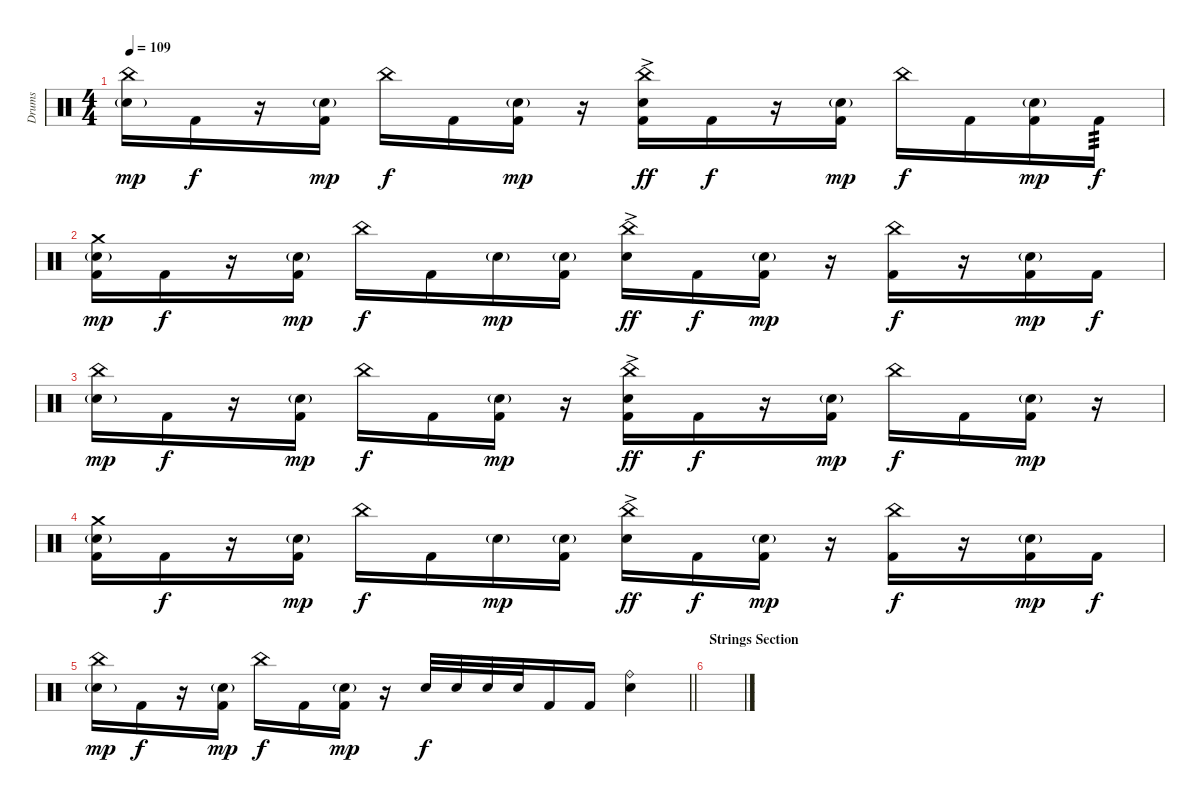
\track ("Drums" "Drums") {instrument percussion}
\staff {score}
\articulation defaults
\ts (4 4)
\tempo 109
\clef neutral
\ks c
("China (hit)" "Snare (hit) 2"{g}).16{dy mp} "Kick (hit) 2".16{dy f} r.16 ("Snare (hit) 2"{g} "Kick (hit) 2").16{dy mp} "China (hit)".16{dy f} "Kick (hit) 2".16 ("Snare (hit) 2"{g} "Kick (hit) 2").16{dy mp} r.16 ("China (hit)" "Snare (hit) 2"{ac} "Kick (hit) 2").16{dy ff} "Kick (hit) 2".16{dy f} r.16 ("Snare (hit) 2"{g} "Kick (hit) 2").16{dy mp} "China (hit)".16{dy f} "Kick (hit) 2".16 ("Snare (hit) 2"{g} "Kick (hit) 2").16{dy mp} "Kick (hit) 2".16{tp 3 dy f} |
("Crash medium (hit)" "Snare (hit) 2"{g} "Kick (hit) 2").16{dy mp} "Kick (hit) 2".16{dy f} r.16 ("Snare (hit) 2"{g} "Kick (hit) 2").16{dy mp} "China (hit)".16{dy f} "Kick (hit) 2".16 "Snare (hit) 2"{g}.16{dy mp} ("Snare (hit) 2"{g} "Kick (hit) 2").16 ("China (hit)" "Snare (hit) 2"{ac}).16{dy ff} "Kick (hit) 2".16{dy f} ("Snare (hit) 2"{g} "Kick (hit) 2").16{dy mp} r.16 ("China (hit)" "Kick (hit) 2").16{dy f} r.16 ("Snare (hit) 2"{g} "Kick (hit) 2").16{dy mp} "Kick (hit) 2".16{dy f} |
("China (hit)" "Snare (hit) 2"{g}).16{dy mp} "Kick (hit) 2".16{dy f} r.16 ("Snare (hit) 2"{g} "Kick (hit) 2").16{dy mp} "China (hit)".16{dy f} "Kick (hit) 2".16 ("Snare (hit) 2"{g} "Kick (hit) 2").16{dy mp} r.16 ("China (hit)" "Snare (hit) 2"{ac} "Kick (hit) 2").16{dy ff} "Kick (hit) 2".16{dy f} r.16 ("Snare (hit) 2"{g} "Kick (hit) 2").16{dy mp} "China (hit)".16{dy f} "Kick (hit) 2".16 ("Snare (hit) 2"{g} "Kick (hit) 2").16{dy mp} r.16 |
("Crash medium (hit)" "Snare (hit) 2"{g} "Kick (hit) 2").16 "Kick (hit) 2".16{dy f} r.16 ("Snare (hit) 2"{g} "Kick (hit) 2").16{dy mp} "China (hit)".16{dy f} "Kick (hit) 2".16 "Snare (hit) 2"{g}.16{dy mp} ("Snare (hit) 2"{g} "Kick (hit) 2").16 ("China (hit)" "Snare (hit) 2"{ac}).16{dy ff} "Kick (hit) 2".16{dy f} ("Snare (hit) 2"{g} "Kick (hit) 2").16{dy mp} r.16 ("China (hit)" "Kick (hit) 2").16{dy f} r.16 ("Snare (hit) 2"{g} "Kick (hit) 2").16{dy mp} "Kick (hit) 2".16{dy f} |
\barLineRight lightlight
("China (hit)" "Snare (hit) 2"{g}).16{dy mp} "Kick (hit) 2".16{dy f} r.16 ("Snare (hit) 2"{g} "Kick (hit) 2").16{dy mp} "China (hit)".16{dy f} "Kick (hit) 2".16 ("Snare (hit) 2"{g} "Kick (hit) 2").16{dy mp} r.16 "Snare (hit) 2".32{dy f} "Snare (hit) 2".32 "Snare (hit) 2".32 "Snare (hit) 2".32 "Kick (hit) 2".16 "Kick (hit) 2".16 ("Ride (bell)" "Snare (hit) 2").4 |
\section ("" "Strings Section")
